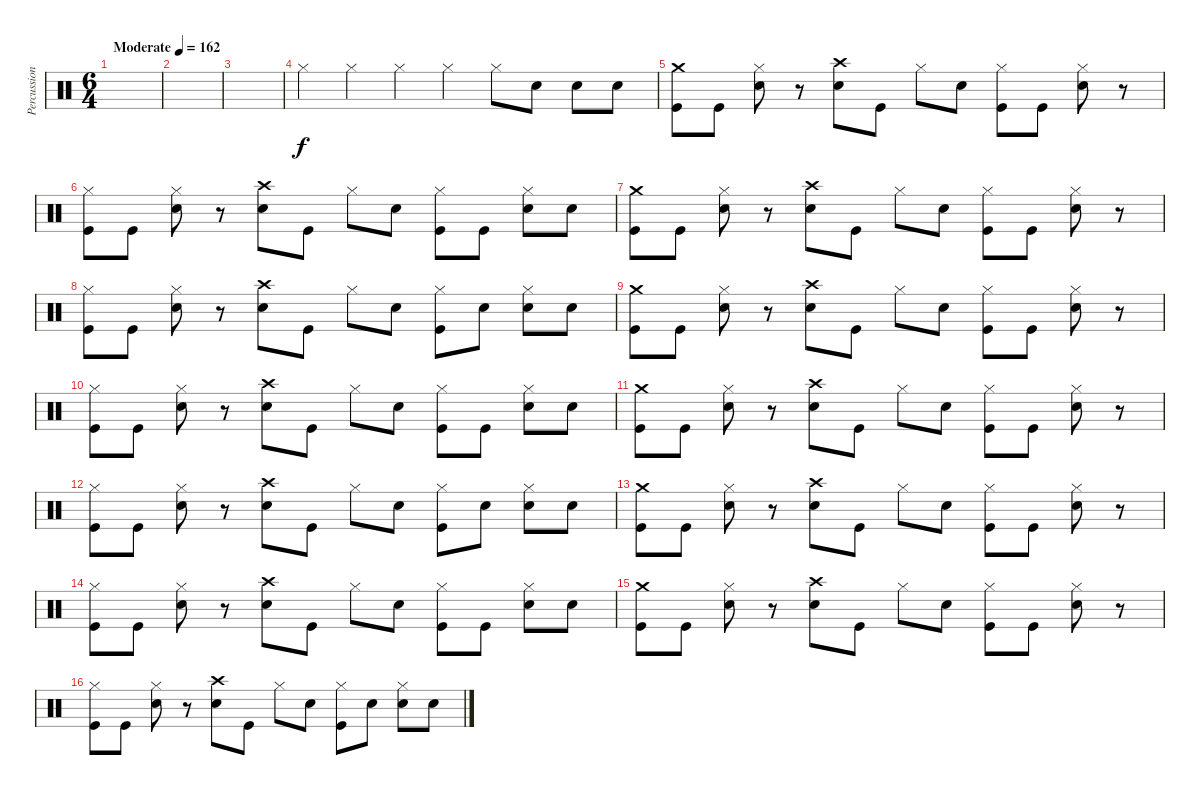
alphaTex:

\track ("Percussion" "Percussion") {instrument percussion}
\staff {score}
\articulation defaults
\ts (6 4)
\tempo (162 "Moderate")
\clef neutral
\ks c
|
|
|
"Hi-Hat (closed)".4 "Hi-Hat (closed)".4 "Hi-Hat (closed)".4 "Hi-Hat (closed)".4 "Hi-Hat (closed)".8 "Snare (hit) 2".8 "Snare (hit) 2".8 "Snare (hit) 2".8 |
("Crash medium (hit)" "Kick (hit)").8 "Kick (hit)".8 ("Hi-Hat (closed)" "Snare (hit) 2").8 r.8 ("Crash high (hit)" "Snare (hit) 2").8 "Kick (hit)".8 "Hi-Hat (closed)".8 "Snare (hit) 2".8 ("Hi-Hat (closed)" "Kick (hit)").8 "Kick (hit)".8 ("Hi-Hat (closed)" "Snare (hit) 2").8 r.8 |
("Hi-Hat (closed)" "Kick (hit)").8 "Kick (hit)".8 ("Hi-Hat (closed)" "Snare (hit) 2").8 r.8 ("Crash high (hit)" "Snare (hit) 2").8 "Kick (hit)".8 "Hi-Hat (closed)".8 "Snare (hit) 2".8 ("Hi-Hat (closed)" "Kick (hit)").8 "Kick (hit)".8 ("Hi-Hat (closed)" "Snare (hit) 2").8 "Snare (hit) 2".8 |
("Crash medium (hit)" "Kick (hit)").8 "Kick (hit)".8 ("Hi-Hat (closed)" "Snare (hit) 2").8 r.8 ("Crash high (hit)" "Snare (hit) 2").8 "Kick (hit)".8 "Hi-Hat (closed)".8 "Snare (hit) 2".8 ("Hi-Hat (closed)" "Kick (hit)").8 "Kick (hit)".8 ("Hi-Hat (closed)" "Snare (hit) 2").8 r.8 |
("Hi-Hat (closed)" "Kick (hit)").8 "Kick (hit)".8 ("Hi-Hat (closed)" "Snare (hit) 2").8 r.8 ("Crash high (hit)" "Snare (hit) 2").8 "Kick (hit)".8 "Hi-Hat (closed)".8 "Snare (hit) 2".8 ("Hi-Hat (closed)" "Kick (hit)").8 "Snare (hit) 2".8 ("Hi-Hat (closed)" "Snare (hit) 2").8 "Snare (hit) 2".8 |
("Crash medium (hit)" "Kick (hit)").8 "Kick (hit)".8 ("Hi-Hat (closed)" "Snare (hit) 2").8 r.8 ("Crash high (hit)" "Snare (hit) 2").8 "Kick (hit)".8 "Hi-Hat (closed)".8 "Snare (hit) 2".8 ("Hi-Hat (closed)" "Kick (hit)").8 "Kick (hit)".8 ("Hi-Hat (closed)" "Snare (hit) 2").8 r.8 |
("Hi-Hat (closed)" "Kick (hit)").8 "Kick (hit)".8 ("Hi-Hat (closed)" "Snare (hit) 2").8 r.8 ("Crash high (hit)" "Snare (hit) 2").8 "Kick (hit)".8 "Hi-Hat (closed)".8 "Snare (hit) 2".8 ("Hi-Hat (closed)" "Kick (hit)").8 "Kick (hit)".8 ("Hi-Hat (closed)" "Snare (hit) 2").8 "Snare (hit) 2".8 |
("Crash medium (hit)" "Kick (hit)").8 "Kick (hit)".8 ("Hi-Hat (closed)" "Snare (hit) 2").8 r.8 ("Crash high (hit)" "Snare (hit) 2").8 "Kick (hit)".8 "Hi-Hat (closed)".8 "Snare (hit) 2".8 ("Hi-Hat (closed)" "Kick (hit)").8 "Kick (hit)".8 ("Hi-Hat (closed)" "Snare (hit) 2").8 r.8 |
("Hi-Hat (closed)" "Kick (hit)").8 "Kick (hit)".8 ("Hi-Hat (closed)" "Snare (hit) 2").8 r.8 ("Crash high (hit)" "Snare (hit) 2").8 "Kick (hit)".8 "Hi-Hat (closed)".8 "Snare (hit) 2".8 ("Hi-Hat (closed)" "Kick (hit)").8 "Snare (hit) 2".8 ("Hi-Hat (closed)" "Snare (hit) 2").8 "Snare (hit) 2".8 |
("Crash medium (hit)" "Kick (hit)").8 "Kick (hit)".8 ("Hi-Hat (closed)" "Snare (hit) 2").8 r.8 ("Crash high (hit)" "Snare (hit) 2").8 "Kick (hit)".8 "Hi-Hat (closed)".8 "Snare (hit) 2".8 ("Hi-Hat (closed)" "Kick (hit)").8 "Kick (hit)".8 ("Hi-Hat (closed)" "Snare (hit) 2").8 r.8 |
("Hi-Hat (closed)" "Kick (hit)").8 "Kick (hit)".8 ("Hi-Hat (closed)" "Snare (hit) 2").8 r.8 ("Crash high (hit)" "Snare (hit) 2").8 "Kick (hit)".8 "Hi-Hat (closed)".8 "Snare (hit) 2".8 ("Hi-Hat (closed)" "Kick (hit)").8 "Kick (hit)".8 ("Hi-Hat (closed)" "Snare (hit) 2").8 "Snare (hit) 2".8 |
("Crash medium (hit)" "Kick (hit)").8 "Kick (hit)".8 ("Hi-Hat (closed)" "Snare (hit) 2").8 r.8 ("Crash high (hit)" "Snare (hit) 2").8 "Kick (hit)".8 "Hi-Hat (closed)".8 "Snare (hit) 2".8 ("Hi-Hat (closed)" "Kick (hit)").8 "Kick (hit)".8 ("Hi-Hat (closed)" "Snare (hit) 2").8 r.8 |
("Hi-Hat (closed)" "Kick (hit)").8 "Kick (hit)".8 ("Hi-Hat (closed)" "Snare (hit) 2").8 r.8 ("Crash high (hit)" "Snare (hit) 2").8 "Kick (hit)".8 "Hi-Hat (closed)".8 "Snare (hit) 2".8 ("Hi-Hat (closed)" "Kick (hit)").8 "Snare (hit) 2".8 ("Hi-Hat (closed)" "Snare (hit) 2").8 "Snare (hit) 2".8
